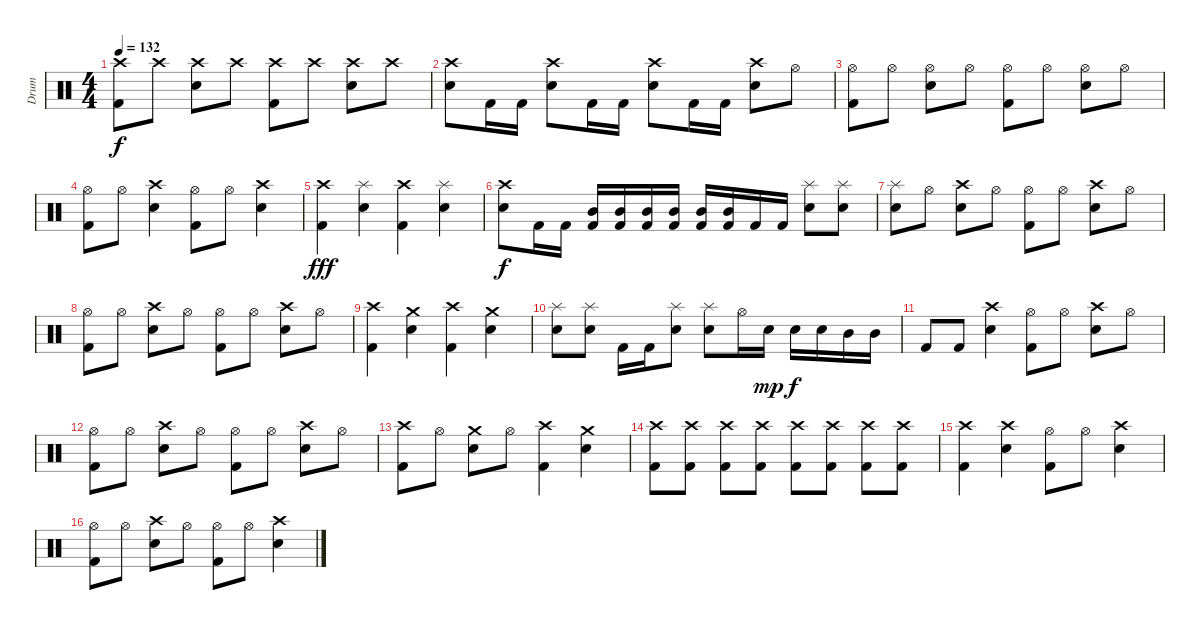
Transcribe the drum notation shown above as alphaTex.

\track ("Drum" "Drum") {instrument percussion}
\staff {score}
\articulation defaults
\ts (4 4)
\tempo 132
\clef neutral
\ks c
("Crash high (hit)" "Kick (hit) 2").8{dy f} "Crash high (hit)".8 ("Crash high (hit)" "Snare (hit) 2").8 "Crash high (hit)".8 ("Crash high (hit)" "Kick (hit) 2").8 "Crash high (hit)".8 ("Crash high (hit)" "Snare (hit) 2").8 "Crash high (hit)".8 |
("Crash high (hit)" "Snare (hit) 2").8 "Kick (hit) 2".16 "Kick (hit) 2".16 ("Crash high (hit)" "Snare (hit) 2").8 "Kick (hit) 2".16 "Kick (hit) 2".16 ("Crash high (hit)" "Snare (hit) 2").8 "Kick (hit) 2".16 "Kick (hit) 2".16 ("Crash high (hit)" "Snare (hit) 2").8 "Hi-Hat (open)".8 |
("Hi-Hat (open)" "Kick (hit) 2").8 "Hi-Hat (open)".8 ("Hi-Hat (open)" "Snare (hit) 2").8 "Hi-Hat (open)".8 ("Hi-Hat (open)" "Kick (hit) 2").8 "Hi-Hat (open)".8 ("Hi-Hat (open)" "Snare (hit) 2").8 "Hi-Hat (open)".8 |
("Hi-Hat (open)" "Kick (hit) 2").8 "Hi-Hat (open)".8 ("Crash high (hit)" "Snare (hit) 2").4 ("Hi-Hat (open)" "Kick (hit) 2").8 "Hi-Hat (open)".8 ("Crash high (hit)" "Snare (hit) 2").4 |
("Crash high (hit)" "Kick (hit) 2").4{dy fff} ("Splash (hit)" "Snare (hit) 2").4 ("Crash high (hit)" "Kick (hit) 2").4 ("Splash (hit)" "Snare (hit) 2").4 |
("Crash high (hit)" "Snare (hit) 2").8{dy f} "Kick (hit) 2".16 "Kick (hit) 2".16 ("Mid Tom (hit)" "Kick (hit) 2").16 ("Mid Tom (hit)" "Kick (hit) 2").16 ("Mid Tom (hit)" "Kick (hit) 2").16 ("Mid Tom (hit)" "Kick (hit) 2").16 ("Mid Tom (hit)" "Kick (hit) 2").16 ("Mid Tom (hit)" "Kick (hit) 2").16 "Kick (hit) 2".16 "Kick (hit) 2".16 ("Splash (hit)" "Snare (hit) 2").8 ("Splash (hit)" "Snare (hit) 2").8 |
("Splash (hit)" "Snare (hit) 2").8 "Hi-Hat (open)".8 ("Crash high (hit)" "Snare (hit) 2").8 "Hi-Hat (open)".8 ("Hi-Hat (open)" "Kick (hit) 2").8 "Hi-Hat (open)".8 ("Crash high (hit)" "Snare (hit) 2").8 "Hi-Hat (open)".8 |
("Hi-Hat (open)" "Kick (hit) 2").8 "Hi-Hat (open)".8 ("Crash high (hit)" "Snare (hit) 2").8 "Hi-Hat (open)".8 ("Hi-Hat (open)" "Kick (hit) 2").8 "Hi-Hat (open)".8 ("Crash high (hit)" "Snare (hit) 2").8 "Hi-Hat (open)".8 |
("Crash high (hit)" "Kick (hit) 2").4 ("Crash medium (hit)" "Snare (hit) 2").4 ("Crash high (hit)" "Kick (hit) 2").4 ("Crash medium (hit)" "Snare (hit) 2").4 |
("Splash (hit)" "Snare (hit) 2").8 ("Splash (hit)" "Snare (hit) 2").8 "Kick (hit) 2".16 "Kick (hit) 2".16 ("Splash (hit)" "Snare (hit) 2").8 ("Splash (hit)" "Snare (hit) 2").8 "Hi-Hat (open)".16 "Snare (hit) 2".16{dy mp} "Snare (hit) 2".16{dy f} "Snare (hit) 2".16 "Mid Tom (hit)".16 "Mid Tom (hit)".16 |
"Kick (hit) 2".8 "Kick (hit) 2".8 ("Crash high (hit)" "Snare (hit) 2").4 ("Hi-Hat (open)" "Kick (hit) 2").8 "Hi-Hat (open)".8 ("Crash high (hit)" "Snare (hit) 2").8 "Hi-Hat (open)".8 |
("Hi-Hat (open)" "Kick (hit) 2").8 "Hi-Hat (open)".8 ("Crash high (hit)" "Snare (hit) 2").8 "Hi-Hat (open)".8 ("Hi-Hat (open)" "Kick (hit) 2").8 "Hi-Hat (open)".8 ("Crash high (hit)" "Snare (hit) 2").8 "Hi-Hat (open)".8 |
("Crash high (hit)" "Kick (hit) 2").8 "Hi-Hat (open)".8 ("Crash medium (hit)" "Snare (hit) 2").8 "Hi-Hat (open)".8 ("Crash high (hit)" "Kick (hit) 2").4 ("Crash medium (hit)" "Snare (hit) 2").4 |
("Crash high (hit)" "Kick (hit) 2").8 ("Crash high (hit)" "Kick (hit) 2").8 ("Crash high (hit)" "Kick (hit) 2").8 ("Crash high (hit)" "Kick (hit) 2").8 ("Crash high (hit)" "Kick (hit) 2").8 ("Crash high (hit)" "Kick (hit) 2").8 ("Crash high (hit)" "Kick (hit) 2").8 ("Crash high (hit)" "Kick (hit) 2").8 |
("Crash high (hit)" "Kick (hit) 2").4 ("Crash high (hit)" "Snare (hit) 2").4 ("Hi-Hat (open)" "Kick (hit) 2").8 "Hi-Hat (open)".8 ("Crash high (hit)" "Snare (hit) 2").4 |
("Hi-Hat (open)" "Kick (hit) 2").8 "Hi-Hat (open)".8 ("Crash high (hit)" "Snare (hit) 2").8 "Hi-Hat (open)".8 ("Hi-Hat (open)" "Kick (hit) 2").8 "Hi-Hat (open)".8 ("Crash high (hit)" "Snare (hit) 2").4
